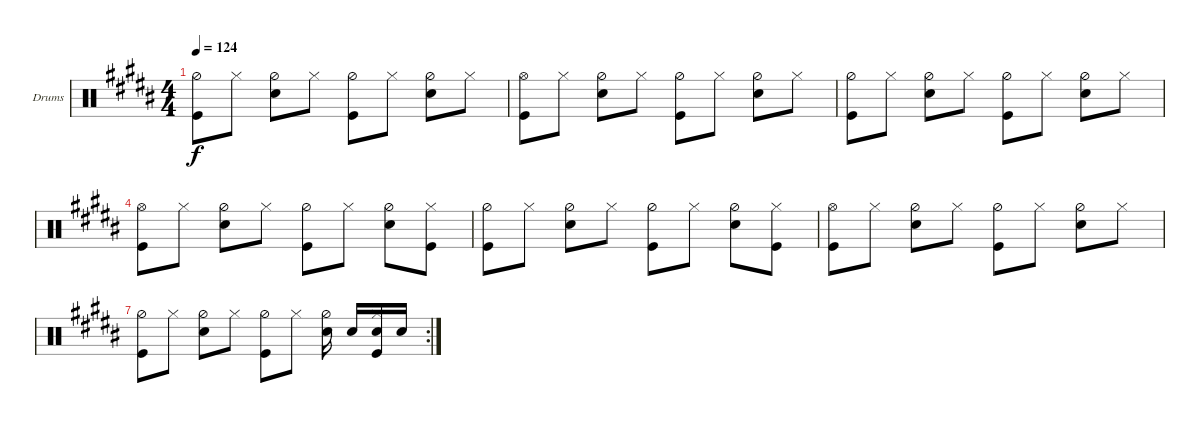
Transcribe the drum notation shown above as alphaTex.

\bracketExtendMode nobrackets
\firstSystemTrackNameOrientation horizontal
\otherSystemsTrackNameOrientation horizontal
\defaultBarNumberDisplay FirstOfSystem
\track ("Drumkit" "Drums") {instrument percussion}
\staff {score}
\articulation defaults
\ts (4 4)
\tempo 124
\clef neutral
\ks g#minor
("Kick (hit)" "Hi-Hat (half)").8{dy f} "Hi-Hat (closed)".8 ("Hi-Hat (half)" "Snare (hit) 2").8 "Hi-Hat (closed)".8 ("Hi-Hat (half)" "Kick (hit)").8 "Hi-Hat (closed)".8 ("Hi-Hat (half)" "Snare (hit) 2").8 "Hi-Hat (closed)".8 |
("Kick (hit)" "Hi-Hat (open)").8 "Hi-Hat (closed)".8 ("Hi-Hat (half)" "Snare (hit) 2").8 "Hi-Hat (closed)".8 ("Hi-Hat (half)" "Kick (hit)").8 "Hi-Hat (closed)".8 ("Snare (hit) 2" "Hi-Hat (half)").8 "Hi-Hat (closed)".8 |
("Kick (hit)" "Hi-Hat (half)").8 "Hi-Hat (closed)".8 ("Hi-Hat (half)" "Snare (hit) 2").8 "Hi-Hat (closed)".8 ("Hi-Hat (half)" "Kick (hit)").8 "Hi-Hat (closed)".8 ("Hi-Hat (half)" "Snare (hit) 2").8 "Hi-Hat (closed)".8 |
\ks b
("Kick (hit)" "Hi-Hat (open)").8 "Hi-Hat (closed)".8 ("Hi-Hat (half)" "Snare (hit) 2").8 "Hi-Hat (closed)".8 ("Hi-Hat (half)" "Kick (hit)").8 "Hi-Hat (closed)".8 ("Hi-Hat (half)" "Snare (hit) 2").8 ("Hi-Hat (closed)" "Kick (hit)").8 |
\ks g#minor
("Kick (hit)" "Hi-Hat (half)").8 "Hi-Hat (closed)".8 ("Hi-Hat (half)" "Snare (hit) 2").8 "Hi-Hat (closed)".8 ("Hi-Hat (half)" "Kick (hit)").8 "Hi-Hat (closed)".8 ("Hi-Hat (half)" "Snare (hit) 2").8 ("Hi-Hat (closed)" "Kick (hit)").8 |
("Kick (hit)" "Hi-Hat (open)").8 "Hi-Hat (closed)".8 ("Hi-Hat (half)" "Snare (hit) 2").8 "Hi-Hat (closed)".8 ("Hi-Hat (half)" "Kick (hit)").8 "Hi-Hat (closed)".8 ("Hi-Hat (half)" "Snare (hit) 2").8 "Hi-Hat (closed)".8 |
\rc 2
("Kick (hit)" "Hi-Hat (half)").8 "Hi-Hat (closed)".8 ("Hi-Hat (half)" "Snare (hit) 2").8 "Hi-Hat (closed)".8 ("Hi-Hat (half)" "Kick (hit)").8 "Hi-Hat (closed)".8 ("Snare (hit) 2" "Hi-Hat (half)").16{beam split} "Snare (hit) 2".16 ("Hi-Hat (closed)" "Snare (hit) 2" "Kick (hit)").16 "Snare (hit) 2".16
